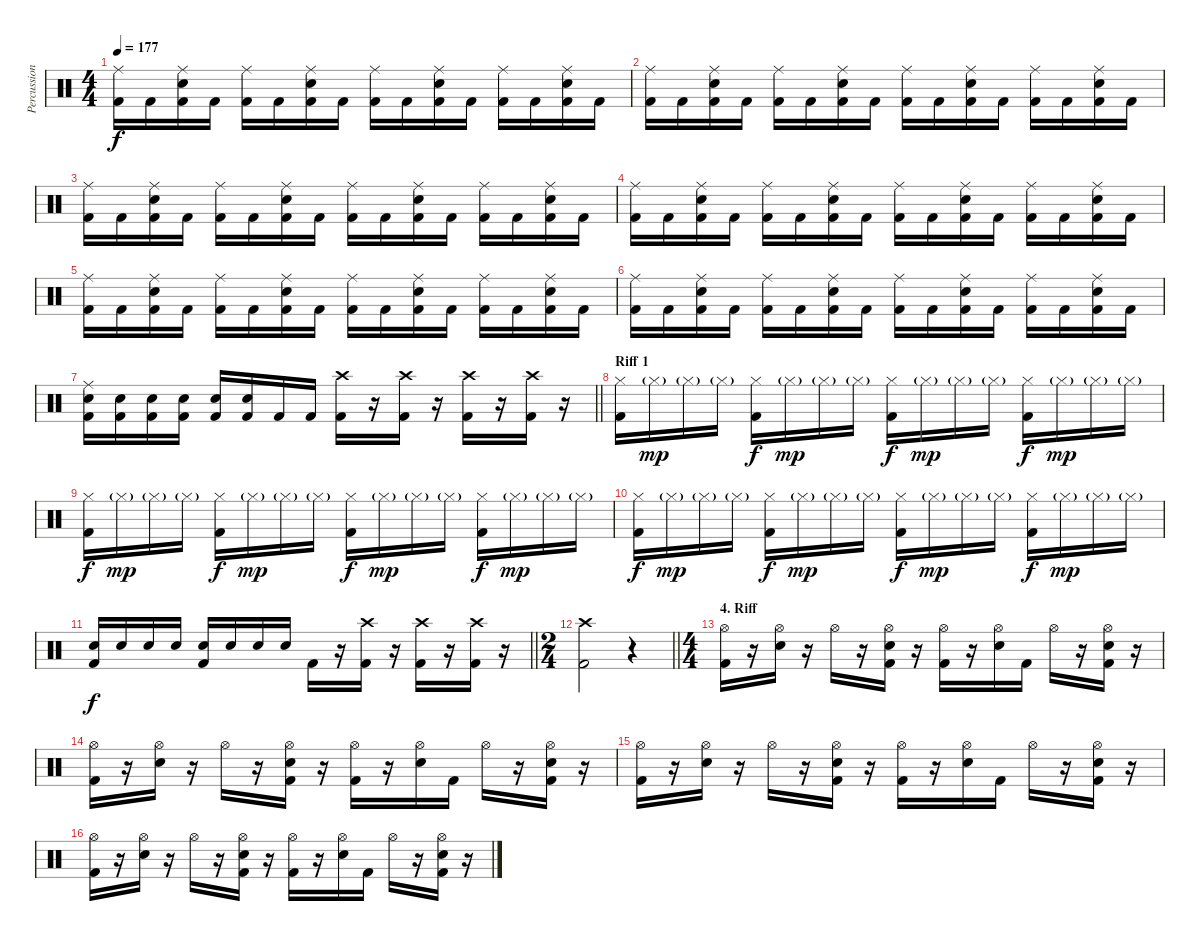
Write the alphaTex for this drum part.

\track ("Percussion" "Percussion") {instrument percussion}
\staff {score}
\articulation defaults
\ts (4 4)
\tempo 177
\clef neutral
\ks c
("Ride (middle)" "Kick (hit) 2").16{dy f} "Kick (hit) 2".16 ("Ride (middle)" "Snare (hit) 2" "Kick (hit) 2").16 "Kick (hit) 2".16 ("Ride (middle)" "Kick (hit) 2").16 "Kick (hit) 2".16 ("Ride (middle)" "Snare (hit) 2" "Kick (hit) 2").16 "Kick (hit) 2".16 ("Ride (middle)" "Kick (hit) 2").16 "Kick (hit) 2".16 ("Ride (middle)" "Snare (hit) 2" "Kick (hit) 2").16 "Kick (hit) 2".16 ("Ride (middle)" "Kick (hit) 2").16 "Kick (hit) 2".16 ("Ride (middle)" "Snare (hit) 2" "Kick (hit) 2").16 "Kick (hit) 2".16 |
("Ride (middle)" "Kick (hit) 2").16 "Kick (hit) 2".16 ("Ride (middle)" "Snare (hit) 2" "Kick (hit) 2").16 "Kick (hit) 2".16 ("Ride (middle)" "Kick (hit) 2").16 "Kick (hit) 2".16 ("Ride (middle)" "Snare (hit) 2" "Kick (hit) 2").16 "Kick (hit) 2".16 ("Ride (middle)" "Kick (hit) 2").16 "Kick (hit) 2".16 ("Ride (middle)" "Snare (hit) 2" "Kick (hit) 2").16 "Kick (hit) 2".16 ("Ride (middle)" "Kick (hit) 2").16 "Kick (hit) 2".16 ("Ride (middle)" "Snare (hit) 2" "Kick (hit) 2").16 "Kick (hit) 2".16 |
("Ride (middle)" "Kick (hit) 2").16 "Kick (hit) 2".16 ("Ride (middle)" "Snare (hit) 2" "Kick (hit) 2").16 "Kick (hit) 2".16 ("Ride (middle)" "Kick (hit) 2").16 "Kick (hit) 2".16 ("Ride (middle)" "Snare (hit) 2" "Kick (hit) 2").16 "Kick (hit) 2".16 ("Ride (middle)" "Kick (hit) 2").16 "Kick (hit) 2".16 ("Ride (middle)" "Snare (hit) 2" "Kick (hit) 2").16 "Kick (hit) 2".16 ("Ride (middle)" "Kick (hit) 2").16 "Kick (hit) 2".16 ("Ride (middle)" "Snare (hit) 2" "Kick (hit) 2").16 "Kick (hit) 2".16 |
("Ride (middle)" "Kick (hit) 2").16 "Kick (hit) 2".16 ("Ride (middle)" "Snare (hit) 2" "Kick (hit) 2").16 "Kick (hit) 2".16 ("Ride (middle)" "Kick (hit) 2").16 "Kick (hit) 2".16 ("Ride (middle)" "Snare (hit) 2" "Kick (hit) 2").16 "Kick (hit) 2".16 ("Ride (middle)" "Kick (hit) 2").16 "Kick (hit) 2".16 ("Ride (middle)" "Snare (hit) 2" "Kick (hit) 2").16 "Kick (hit) 2".16 ("Ride (middle)" "Kick (hit) 2").16 "Kick (hit) 2".16 ("Ride (middle)" "Snare (hit) 2" "Kick (hit) 2").16 "Kick (hit) 2".16 |
("Ride (middle)" "Kick (hit) 2").16 "Kick (hit) 2".16 ("Ride (middle)" "Snare (hit) 2" "Kick (hit) 2").16 "Kick (hit) 2".16 ("Ride (middle)" "Kick (hit) 2").16 "Kick (hit) 2".16 ("Ride (middle)" "Snare (hit) 2" "Kick (hit) 2").16 "Kick (hit) 2".16 ("Ride (middle)" "Kick (hit) 2").16 "Kick (hit) 2".16 ("Ride (middle)" "Snare (hit) 2" "Kick (hit) 2").16 "Kick (hit) 2".16 ("Ride (middle)" "Kick (hit) 2").16 "Kick (hit) 2".16 ("Ride (middle)" "Snare (hit) 2" "Kick (hit) 2").16 "Kick (hit) 2".16 |
("Ride (middle)" "Kick (hit) 2").16 "Kick (hit) 2".16 ("Ride (middle)" "Snare (hit) 2" "Kick (hit) 2").16 "Kick (hit) 2".16 ("Ride (middle)" "Kick (hit) 2").16 "Kick (hit) 2".16 ("Ride (middle)" "Snare (hit) 2" "Kick (hit) 2").16 "Kick (hit) 2".16 ("Ride (middle)" "Kick (hit) 2").16 "Kick (hit) 2".16 ("Ride (middle)" "Snare (hit) 2" "Kick (hit) 2").16 "Kick (hit) 2".16 ("Ride (middle)" "Kick (hit) 2").16 "Kick (hit) 2".16 ("Ride (middle)" "Snare (hit) 2" "Kick (hit) 2").16 "Kick (hit) 2".16 |
\barLineRight lightlight
("Ride (middle)" "Snare (hit) 2" "Kick (hit) 2").16 ("Snare (hit) 2" "Kick (hit) 2").16 ("Snare (hit) 2" "Kick (hit) 2").16 ("Snare (hit) 2" "Kick (hit) 2").16 ("Snare (hit) 2" "Kick (hit) 2").16 ("Snare (hit) 2" "Kick (hit) 2").16 "Kick (hit) 2".16 "Kick (hit) 2".16 ("Crash high (hit)" "Kick (hit) 2").16 r.16 ("Crash high (hit)" "Kick (hit) 2").16 r.16 ("Crash high (hit)" "Kick (hit) 2").16 r.16 ("Crash high (hit)" "Kick (hit) 2").16 r.16 |
\section ("" "Riff 1")
("Hi-Hat (closed)" "Kick (hit) 2").16 "Hi-Hat (closed)"{g}.16{dy mp} "Hi-Hat (closed)"{g}.16 "Hi-Hat (closed)"{g}.16 ("Hi-Hat (closed)" "Kick (hit) 2").16{dy f} "Hi-Hat (closed)"{g}.16{dy mp} "Hi-Hat (closed)"{g}.16 "Hi-Hat (closed)"{g}.16 ("Hi-Hat (closed)" "Kick (hit) 2").16{dy f} "Hi-Hat (closed)"{g}.16{dy mp} "Hi-Hat (closed)"{g}.16 "Hi-Hat (closed)"{g}.16 ("Hi-Hat (closed)" "Kick (hit) 2").16{dy f} "Hi-Hat (closed)"{g}.16{dy mp} "Hi-Hat (closed)"{g}.16 "Hi-Hat (closed)"{g}.16 |
("Hi-Hat (closed)" "Kick (hit) 2").16{dy f} "Hi-Hat (closed)"{g}.16{dy mp} "Hi-Hat (closed)"{g}.16 "Hi-Hat (closed)"{g}.16 ("Hi-Hat (closed)" "Kick (hit) 2").16{dy f} "Hi-Hat (closed)"{g}.16{dy mp} "Hi-Hat (closed)"{g}.16 "Hi-Hat (closed)"{g}.16 ("Hi-Hat (closed)" "Kick (hit) 2").16{dy f} "Hi-Hat (closed)"{g}.16{dy mp} "Hi-Hat (closed)"{g}.16 "Hi-Hat (closed)"{g}.16 ("Hi-Hat (closed)" "Kick (hit) 2").16{dy f} "Hi-Hat (closed)"{g}.16{dy mp} "Hi-Hat (closed)"{g}.16 "Hi-Hat (closed)"{g}.16 |
("Hi-Hat (closed)" "Kick (hit) 2").16{dy f} "Hi-Hat (closed)"{g}.16{dy mp} "Hi-Hat (closed)"{g}.16 "Hi-Hat (closed)"{g}.16 ("Hi-Hat (closed)" "Kick (hit) 2").16{dy f} "Hi-Hat (closed)"{g}.16{dy mp} "Hi-Hat (closed)"{g}.16 "Hi-Hat (closed)"{g}.16 ("Hi-Hat (closed)" "Kick (hit) 2").16{dy f} "Hi-Hat (closed)"{g}.16{dy mp} "Hi-Hat (closed)"{g}.16 "Hi-Hat (closed)"{g}.16 ("Hi-Hat (closed)" "Kick (hit) 2").16{dy f} "Hi-Hat (closed)"{g}.16{dy mp} "Hi-Hat (closed)"{g}.16 "Hi-Hat (closed)"{g}.16 |
\barLineRight lightlight
("Kick (hit) 2" "Snare (hit) 2").16{dy f} "Snare (hit) 2".16 "Snare (hit) 2".16 "Snare (hit) 2".16 ("Kick (hit) 2" "Snare (hit) 2").16 "Snare (hit) 2".16 "Snare (hit) 2".16 "Snare (hit) 2".16 "Kick (hit) 2".16 r.16 ("Crash high (hit)" "Kick (hit) 2").16 r.16 ("Crash high (hit)" "Kick (hit) 2").16 r.16 ("Crash high (hit)" "Kick (hit) 2").16 r.16 |
\ts (2 4)
\barLineRight lightlight
("Crash high (hit)" "Kick (hit) 2").2 r.4 |
\ts (4 4)
\section ("" "4. Riff")
("Hi-Hat (open)" "Kick (hit) 2").16 r.16 ("Hi-Hat (open)" "Snare (hit) 2").16 r.16 "Hi-Hat (open)".16 r.16 ("Hi-Hat (open)" "Snare (hit) 2" "Kick (hit) 2").16 r.16 ("Hi-Hat (open)" "Kick (hit) 2").16 r.16 ("Hi-Hat (open)" "Snare (hit) 2").16 "Kick (hit) 2".16 "Hi-Hat (open)".16 r.16 ("Hi-Hat (open)" "Snare (hit) 2" "Kick (hit) 2").16 r.16 |
("Hi-Hat (open)" "Kick (hit) 2").16 r.16 ("Hi-Hat (open)" "Snare (hit) 2").16 r.16 "Hi-Hat (open)".16 r.16 ("Hi-Hat (open)" "Snare (hit) 2" "Kick (hit) 2").16 r.16 ("Hi-Hat (open)" "Kick (hit) 2").16 r.16 ("Hi-Hat (open)" "Snare (hit) 2").16 "Kick (hit) 2".16 "Hi-Hat (open)".16 r.16 ("Hi-Hat (open)" "Snare (hit) 2" "Kick (hit) 2").16 r.16 |
("Hi-Hat (open)" "Kick (hit) 2").16 r.16 ("Hi-Hat (open)" "Snare (hit) 2").16 r.16 "Hi-Hat (open)".16 r.16 ("Hi-Hat (open)" "Snare (hit) 2" "Kick (hit) 2").16 r.16 ("Hi-Hat (open)" "Kick (hit) 2").16 r.16 ("Hi-Hat (open)" "Snare (hit) 2").16 "Kick (hit) 2".16 "Hi-Hat (open)".16 r.16 ("Hi-Hat (open)" "Snare (hit) 2" "Kick (hit) 2").16 r.16 |
("Hi-Hat (open)" "Kick (hit) 2").16 r.16 ("Hi-Hat (open)" "Snare (hit) 2").16 r.16 "Hi-Hat (open)".16 r.16 ("Hi-Hat (open)" "Snare (hit) 2" "Kick (hit) 2").16 r.16 ("Hi-Hat (open)" "Kick (hit) 2").16 r.16 ("Hi-Hat (open)" "Snare (hit) 2").16 "Kick (hit) 2".16 "Hi-Hat (open)".16 r.16 ("Hi-Hat (open)" "Snare (hit) 2" "Kick (hit) 2").16 r.16
